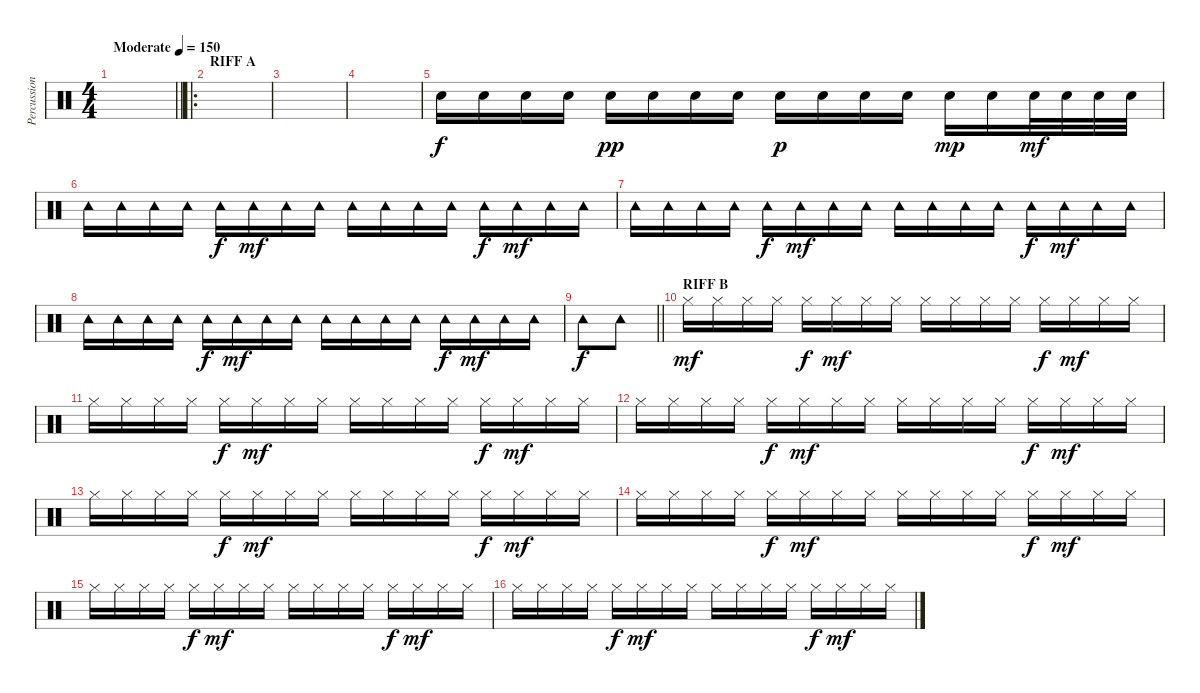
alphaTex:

\track ("Percussion 2" "Percussion") {instrument percussion}
\staff {score}
\articulation defaults
\ts (4 4)
\tempo (150 "Moderate")
\clef neutral
\barLineRight lightlight
\ks c
|
\ro
\section ("" "RIFF A")
|
|
|
"Snare (hit) 2".16 "Snare (hit) 2".16 "Snare (hit) 2".16 "Snare (hit) 2".16 "Snare (hit) 2".16{dy pp} "Snare (hit) 2".16 "Snare (hit) 2".16 "Snare (hit) 2".16 "Snare (hit) 2".16{dy p} "Snare (hit) 2".16 "Snare (hit) 2".16 "Snare (hit) 2".16 "Snare (hit) 2".16{dy mp} "Snare (hit) 2".16 "Snare (hit) 2".32{dy mf} "Snare (hit) 2".32 "Snare (hit) 2".32 "Snare (hit) 2".32 |
"Tambourine (hit)".16 "Tambourine (hit)".16 "Tambourine (hit)".16 "Tambourine (hit)".16 "Tambourine (hit)".16{dy f} "Tambourine (hit)".16{dy mf} "Tambourine (hit)".16 "Tambourine (hit)".16 "Tambourine (hit)".16 "Tambourine (hit)".16 "Tambourine (hit)".16 "Tambourine (hit)".16 "Tambourine (hit)".16{dy f} "Tambourine (hit)".16{dy mf} "Tambourine (hit)".16 "Tambourine (hit)".16 |
"Tambourine (hit)".16 "Tambourine (hit)".16 "Tambourine (hit)".16 "Tambourine (hit)".16 "Tambourine (hit)".16{dy f} "Tambourine (hit)".16{dy mf} "Tambourine (hit)".16 "Tambourine (hit)".16 "Tambourine (hit)".16 "Tambourine (hit)".16 "Tambourine (hit)".16 "Tambourine (hit)".16 "Tambourine (hit)".16{dy f} "Tambourine (hit)".16{dy mf} "Tambourine (hit)".16 "Tambourine (hit)".16 |
"Tambourine (hit)".16 "Tambourine (hit)".16 "Tambourine (hit)".16 "Tambourine (hit)".16 "Tambourine (hit)".16{dy f} "Tambourine (hit)".16{dy mf} "Tambourine (hit)".16 "Tambourine (hit)".16 "Tambourine (hit)".16 "Tambourine (hit)".16 "Tambourine (hit)".16 "Tambourine (hit)".16 "Tambourine (hit)".16{dy f} "Tambourine (hit)".16{dy mf} "Tambourine (hit)".16 "Tambourine (hit)".16 |
\barLineRight lightlight "Tambourine (hit)".8{dy f} "Tambourine (hit)".8
|
\section ("" "RIFF B")
"Hi-Hat (closed)".16{dy mf} "Hi-Hat (closed)".16 "Hi-Hat (closed)".16 "Hi-Hat (closed)".16 "Hi-Hat (closed)".16{dy f} "Hi-Hat (closed)".16{dy mf} "Hi-Hat (closed)".16 "Hi-Hat (closed)".16 "Hi-Hat (closed)".16 "Hi-Hat (closed)".16 "Hi-Hat (closed)".16 "Hi-Hat (closed)".16 "Hi-Hat (closed)".16{dy f} "Hi-Hat (closed)".16{dy mf} "Hi-Hat (closed)".16 "Hi-Hat (closed)".16 |
"Hi-Hat (closed)".16 "Hi-Hat (closed)".16 "Hi-Hat (closed)".16 "Hi-Hat (closed)".16 "Hi-Hat (closed)".16{dy f} "Hi-Hat (closed)".16{dy mf} "Hi-Hat (closed)".16 "Hi-Hat (closed)".16 "Hi-Hat (closed)".16 "Hi-Hat (closed)".16 "Hi-Hat (closed)".16 "Hi-Hat (closed)".16 "Hi-Hat (closed)".16{dy f} "Hi-Hat (closed)".16{dy mf} "Hi-Hat (closed)".16 "Hi-Hat (closed)".16 |
"Hi-Hat (closed)".16 "Hi-Hat (closed)".16 "Hi-Hat (closed)".16 "Hi-Hat (closed)".16 "Hi-Hat (closed)".16{dy f} "Hi-Hat (closed)".16{dy mf} "Hi-Hat (closed)".16 "Hi-Hat (closed)".16 "Hi-Hat (closed)".16 "Hi-Hat (closed)".16 "Hi-Hat (closed)".16 "Hi-Hat (closed)".16 "Hi-Hat (closed)".16{dy f} "Hi-Hat (closed)".16{dy mf} "Hi-Hat (closed)".16 "Hi-Hat (closed)".16 |
"Hi-Hat (closed)".16 "Hi-Hat (closed)".16 "Hi-Hat (closed)".16 "Hi-Hat (closed)".16 "Hi-Hat (closed)".16{dy f} "Hi-Hat (closed)".16{dy mf} "Hi-Hat (closed)".16 "Hi-Hat (closed)".16 "Hi-Hat (closed)".16 "Hi-Hat (closed)".16 "Hi-Hat (closed)".16 "Hi-Hat (closed)".16 "Hi-Hat (closed)".16{dy f} "Hi-Hat (closed)".16{dy mf} "Hi-Hat (closed)".16 "Hi-Hat (closed)".16 |
"Hi-Hat (closed)".16 "Hi-Hat (closed)".16 "Hi-Hat (closed)".16 "Hi-Hat (closed)".16 "Hi-Hat (closed)".16{dy f} "Hi-Hat (closed)".16{dy mf} "Hi-Hat (closed)".16 "Hi-Hat (closed)".16 "Hi-Hat (closed)".16 "Hi-Hat (closed)".16 "Hi-Hat (closed)".16 "Hi-Hat (closed)".16 "Hi-Hat (closed)".16{dy f} "Hi-Hat (closed)".16{dy mf} "Hi-Hat (closed)".16 "Hi-Hat (closed)".16 |
"Hi-Hat (closed)".16 "Hi-Hat (closed)".16 "Hi-Hat (closed)".16 "Hi-Hat (closed)".16 "Hi-Hat (closed)".16{dy f} "Hi-Hat (closed)".16{dy mf} "Hi-Hat (closed)".16 "Hi-Hat (closed)".16 "Hi-Hat (closed)".16 "Hi-Hat (closed)".16 "Hi-Hat (closed)".16 "Hi-Hat (closed)".16 "Hi-Hat (closed)".16{dy f} "Hi-Hat (closed)".16{dy mf} "Hi-Hat (closed)".16 "Hi-Hat (closed)".16 |
"Hi-Hat (closed)".16 "Hi-Hat (closed)".16 "Hi-Hat (closed)".16 "Hi-Hat (closed)".16 "Hi-Hat (closed)".16{dy f} "Hi-Hat (closed)".16{dy mf} "Hi-Hat (closed)".16 "Hi-Hat (closed)".16 "Hi-Hat (closed)".16 "Hi-Hat (closed)".16 "Hi-Hat (closed)".16 "Hi-Hat (closed)".16 "Hi-Hat (closed)".16{dy f} "Hi-Hat (closed)".16{dy mf} "Hi-Hat (closed)".16 "Hi-Hat (closed)".16
